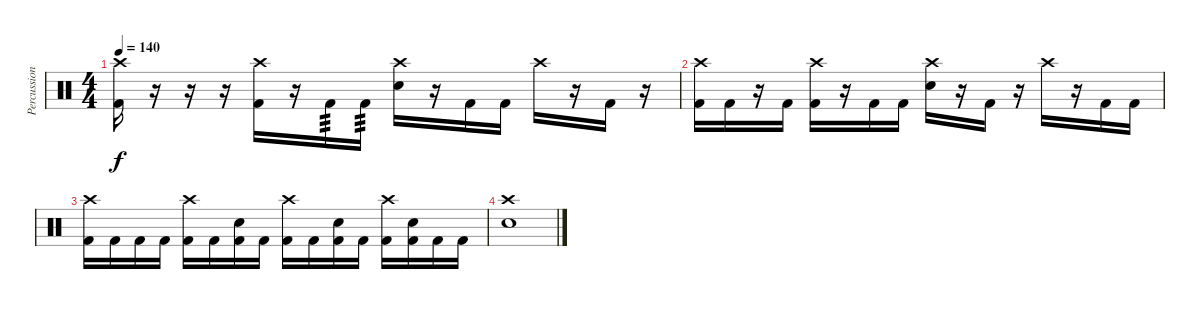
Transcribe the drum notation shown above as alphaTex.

\track ("Percussion" "Percussion") {instrument percussion}
\staff {score}
\articulation defaults
\ts (4 4)
\tempo 140
\clef neutral
\ks c
("Crash high (hit)" "Kick (hit) 2").16{dy f} r.16 r.16 r.16 ("Crash high (hit)" "Kick (hit) 2").16 r.16 "Kick (hit) 2".16{tp 3} "Kick (hit) 2".16{tp 3} ("Crash high (hit)" "Snare (hit) 2").16 r.16 "Kick (hit) 2".16 "Kick (hit) 2".16 "Crash high (hit)".16 r.16 "Kick (hit) 2".16 r.16 |
("Crash high (hit)" "Kick (hit) 2").16 "Kick (hit) 2".16 r.16 "Kick (hit) 2".16 ("Crash high (hit)" "Kick (hit) 2").16 r.16 "Kick (hit) 2".16 "Kick (hit) 2".16 ("Crash high (hit)" "Snare (hit) 2").16 r.16 "Kick (hit) 2".16 r.16 "Crash high (hit)".16 r.16 "Kick (hit) 2".16 "Kick (hit) 2".16 |
("Crash high (hit)" "Kick (hit) 2").16 "Kick (hit) 2".16 "Kick (hit) 2".16 "Kick (hit) 2".16 ("Crash high (hit)" "Kick (hit) 2").16 "Kick (hit) 2".16 ("Snare (hit) 2" "Kick (hit) 2").16 "Kick (hit) 2".16 ("Crash high (hit)" "Kick (hit) 2").16 "Kick (hit) 2".16 ("Snare (hit) 2" "Kick (hit) 2").16 "Kick (hit) 2".16 ("Crash high (hit)" "Kick (hit) 2").16 ("Snare (hit) 2" "Kick (hit) 2").16 "Kick (hit) 2".16 "Kick (hit) 2".16 |
("Crash high (hit)" "Snare (hit) 2").1
